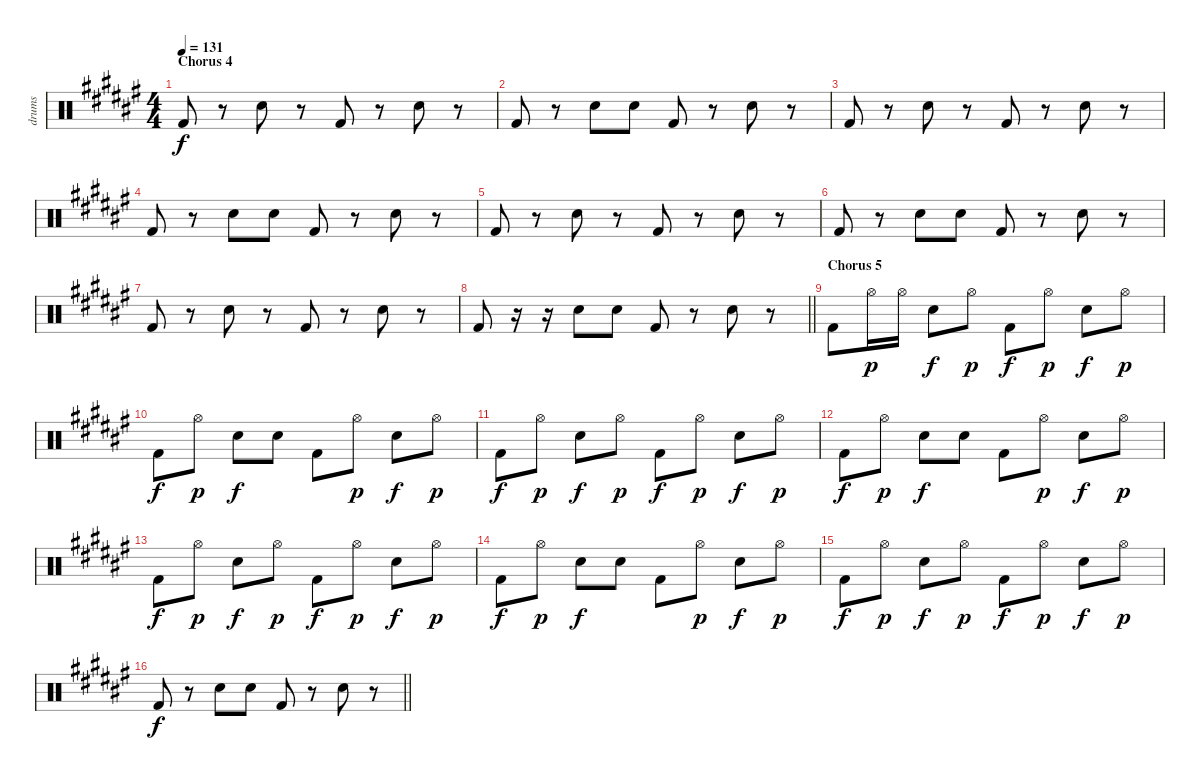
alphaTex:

\track ("drums" "drums") {instrument percussion}
\staff {score}
\articulation defaults
\ts (4 4)
\section ("" "Chorus 4")
\tempo 131
\clef neutral
\ks f# "Kick (hit) 2".8{dy f}
r.8 "Snare (hit) 2".8 r.8 "Kick (hit) 2".8 r.8 "Snare (hit) 2".8 r.8 |
"Kick (hit) 2".8 r.8 "Snare (hit) 2".8 "Snare (hit) 2".8 "Kick (hit) 2".8 r.8 "Snare (hit) 2".8 r.8 |
"Kick (hit) 2".8 r.8 "Snare (hit) 2".8 r.8 "Kick (hit) 2".8 r.8 "Snare (hit) 2".8 r.8 |
"Kick (hit) 2".8 r.8 "Snare (hit) 2".8 "Snare (hit) 2".8 "Kick (hit) 2".8 r.8 "Snare (hit) 2".8 r.8 |
"Kick (hit) 2".8 r.8 "Snare (hit) 2".8 r.8 "Kick (hit) 2".8 r.8 "Snare (hit) 2".8 r.8 |
"Kick (hit) 2".8 r.8 "Snare (hit) 2".8 "Snare (hit) 2".8 "Kick (hit) 2".8 r.8 "Snare (hit) 2".8 r.8 |
"Kick (hit) 2".8 r.8 "Snare (hit) 2".8 r.8 "Kick (hit) 2".8 r.8 "Snare (hit) 2".8 r.8 |
\barLineRight lightlight "Kick (hit) 2".8
r.16 r.16 "Snare (hit) 2".8 "Snare (hit) 2".8 "Kick (hit) 2".8 r.8 "Snare (hit) 2".8 r.8 |
\section ("" "Chorus 5")
"Kick (hit) 2".8 "Hi-Hat (open)".16{dy p} "Hi-Hat (open)".16 "Snare (hit) 2".8{dy f} "Hi-Hat (open)".8{dy p} "Kick (hit) 2".8{dy f} "Hi-Hat (open)".8{dy p} "Snare (hit) 2".8{dy f} "Hi-Hat (open)".8{dy p} |
"Kick (hit) 2".8{dy f} "Hi-Hat (open)".8{dy p} "Snare (hit) 2".8{dy f} "Snare (hit) 2".8 "Kick (hit) 2".8 "Hi-Hat (open)".8{dy p} "Snare (hit) 2".8{dy f} "Hi-Hat (open)".8{dy p} |
"Kick (hit) 2".8{dy f} "Hi-Hat (open)".8{dy p} "Snare (hit) 2".8{dy f} "Hi-Hat (open)".8{dy p} "Kick (hit) 2".8{dy f} "Hi-Hat (open)".8{dy p} "Snare (hit) 2".8{dy f} "Hi-Hat (open)".8{dy p} |
"Kick (hit) 2".8{dy f} "Hi-Hat (open)".8{dy p} "Snare (hit) 2".8{dy f} "Snare (hit) 2".8 "Kick (hit) 2".8 "Hi-Hat (open)".8{dy p} "Snare (hit) 2".8{dy f} "Hi-Hat (open)".8{dy p} |
"Kick (hit) 2".8{dy f} "Hi-Hat (open)".8{dy p} "Snare (hit) 2".8{dy f} "Hi-Hat (open)".8{dy p} "Kick (hit) 2".8{dy f} "Hi-Hat (open)".8{dy p} "Snare (hit) 2".8{dy f} "Hi-Hat (open)".8{dy p} |
"Kick (hit) 2".8{dy f} "Hi-Hat (open)".8{dy p} "Snare (hit) 2".8{dy f} "Snare (hit) 2".8 "Kick (hit) 2".8 "Hi-Hat (open)".8{dy p} "Snare (hit) 2".8{dy f} "Hi-Hat (open)".8{dy p} |
"Kick (hit) 2".8{dy f} "Hi-Hat (open)".8{dy p} "Snare (hit) 2".8{dy f} "Hi-Hat (open)".8{dy p} "Kick (hit) 2".8{dy f} "Hi-Hat (open)".8{dy p} "Snare (hit) 2".8{dy f} "Hi-Hat (open)".8{dy p} |
\barLineRight lightlight "Kick (hit) 2".8{dy f}
r.8 "Snare (hit) 2".8 "Snare (hit) 2".8 "Kick (hit) 2".8 r.8 "Snare (hit) 2".8 r.8
